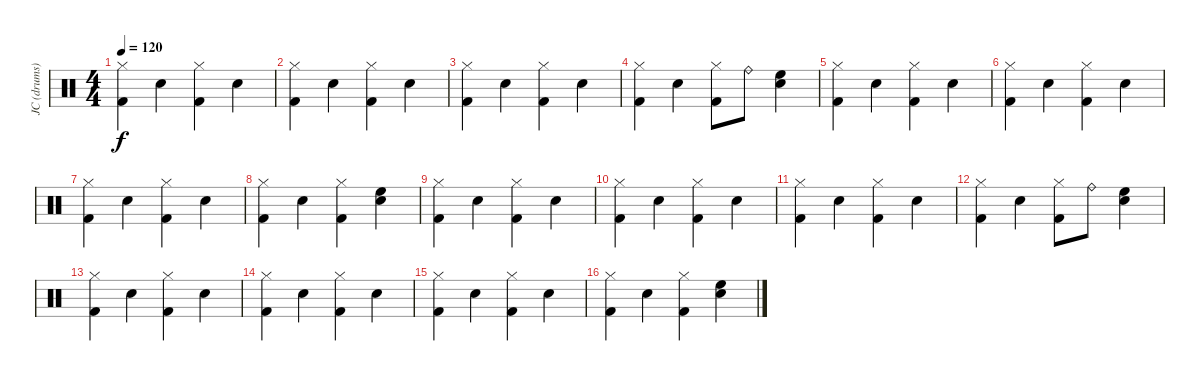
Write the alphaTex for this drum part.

\track ("JC (drums)" "JC (drums)") {instrument percussion}
\staff {score}
\articulation defaults
\ts (4 4)
\tempo 120
\clef neutral
\ks c
("Hi-Hat (closed)" "Kick (hit) 2").4{dy f} "Electric Snare (hit)".4 ("Hi-Hat (closed)" "Kick (hit) 2").4 "Snare (hit) 2".4 |
("Hi-Hat (closed)" "Kick (hit) 2").4 "Electric Snare (hit)".4 ("Hi-Hat (closed)" "Kick (hit) 2").4 "Snare (hit) 2".4 |
("Hi-Hat (closed)" "Kick (hit) 2").4 "Electric Snare (hit)".4 ("Hi-Hat (closed)" "Kick (hit) 2").4 "Snare (hit) 2".4 |
("Hi-Hat (closed)" "Kick (hit) 2").4 "Electric Snare (hit)".4 ("Hi-Hat (closed)" "Kick (hit) 2").8 "Ride (bell)".8 ("High Floor Tom (hit)" "Snare (hit) 2").4 |
("Hi-Hat (closed)" "Kick (hit) 2").4 "Electric Snare (hit)".4 ("Hi-Hat (closed)" "Kick (hit) 2").4 "Snare (hit) 2".4 |
("Hi-Hat (closed)" "Kick (hit) 2").4 "Electric Snare (hit)".4 ("Hi-Hat (closed)" "Kick (hit) 2").4 "Snare (hit) 2".4 |
("Hi-Hat (closed)" "Kick (hit) 2").4 "Electric Snare (hit)".4 ("Hi-Hat (closed)" "Kick (hit) 2").4 "Snare (hit) 2".4 |
("Hi-Hat (closed)" "Kick (hit) 2").4 "Electric Snare (hit)".4 ("Hi-Hat (closed)" "Kick (hit) 2").4 ("High Floor Tom (hit)" "Snare (hit) 2").4 |
("Hi-Hat (closed)" "Kick (hit) 2").4 "Electric Snare (hit)".4 ("Hi-Hat (closed)" "Kick (hit) 2").4 "Snare (hit) 2".4 |
("Hi-Hat (closed)" "Kick (hit) 2").4 "Electric Snare (hit)".4 ("Hi-Hat (closed)" "Kick (hit) 2").4 "Snare (hit) 2".4 |
("Hi-Hat (closed)" "Kick (hit) 2").4 "Electric Snare (hit)".4 ("Hi-Hat (closed)" "Kick (hit) 2").4 "Snare (hit) 2".4 |
("Hi-Hat (closed)" "Kick (hit) 2").4 "Electric Snare (hit)".4 ("Hi-Hat (closed)" "Kick (hit) 2").8 "Ride (bell)".8 ("High Floor Tom (hit)" "Snare (hit) 2").4 |
("Hi-Hat (closed)" "Kick (hit) 2").4 "Electric Snare (hit)".4 ("Hi-Hat (closed)" "Kick (hit) 2").4 "Snare (hit) 2".4 |
("Hi-Hat (closed)" "Kick (hit) 2").4 "Electric Snare (hit)".4 ("Hi-Hat (closed)" "Kick (hit) 2").4 "Snare (hit) 2".4 |
("Hi-Hat (closed)" "Kick (hit) 2").4 "Electric Snare (hit)".4 ("Hi-Hat (closed)" "Kick (hit) 2").4 "Snare (hit) 2".4 |
("Hi-Hat (closed)" "Kick (hit) 2").4 "Electric Snare (hit)".4 ("Hi-Hat (closed)" "Kick (hit) 2").4 ("High Floor Tom (hit)" "Snare (hit) 2").4
